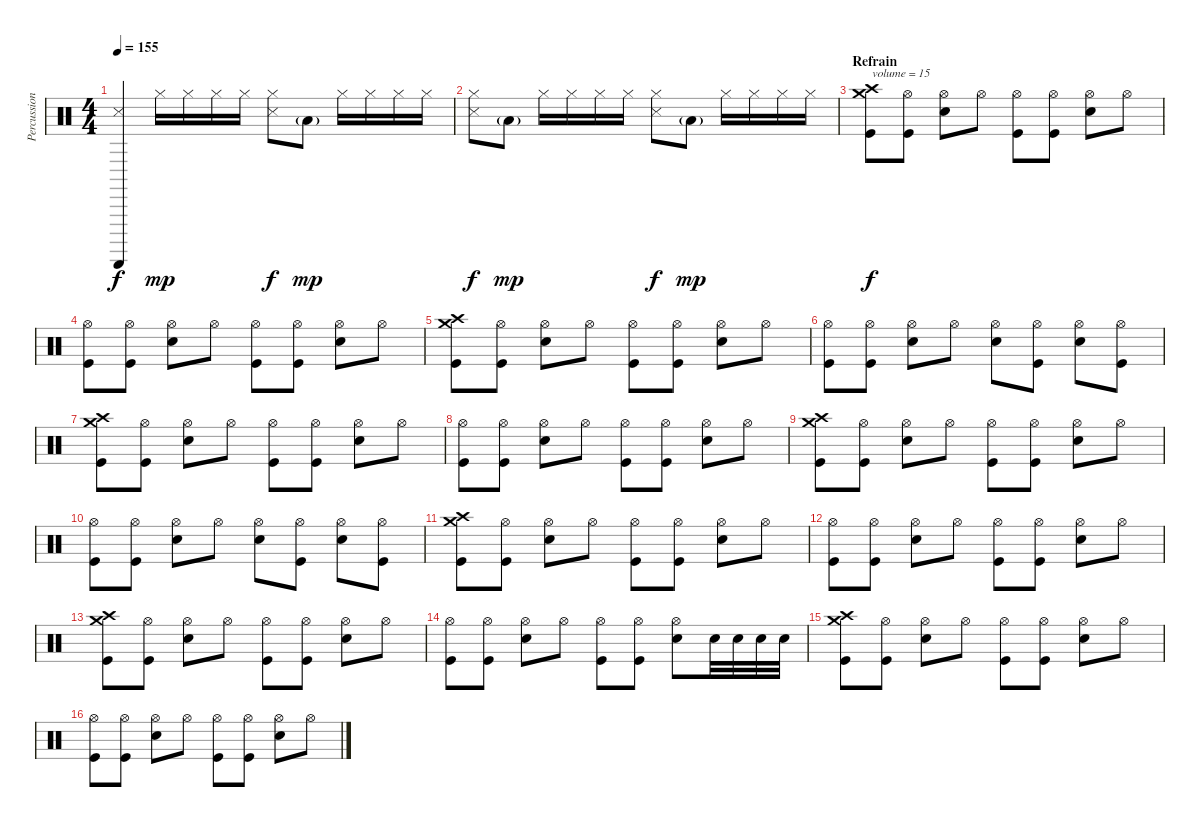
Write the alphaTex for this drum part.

\track ("Percussions" "Percussion") {instrument percussion}
\staff {score}
\articulation defaults
\ts (4 4)
\tempo 155
\clef neutral
\ks c
("Guiro (scrap-return)" "Snare (side stick) 3").4{dy f} "Hi-Hat (closed)".16{dy mp} "Hi-Hat (closed)".16 "Hi-Hat (closed)".16 "Hi-Hat (closed)".16 ("Hi-Hat (closed)" "Snare (side stick) 3").8{dy f} "Low Floor Tom (hit)"{g}.8{dy mp} "Hi-Hat (closed)".16 "Hi-Hat (closed)".16 "Hi-Hat (closed)".16 "Hi-Hat (closed)".16 |
("Hi-Hat (closed)" "Snare (side stick) 3").8{dy f} "Low Floor Tom (hit)"{g}.8{dy mp} "Hi-Hat (closed)".16 "Hi-Hat (closed)".16 "Hi-Hat (closed)".16 "Hi-Hat (closed)".16 ("Hi-Hat (closed)" "Snare (side stick) 3").8{dy f} "Low Floor Tom (hit)"{g}.8{dy mp} "Hi-Hat (closed)".16 "Hi-Hat (closed)".16 "Hi-Hat (closed)".16 "Hi-Hat (closed)".16 |
\section ("" "Refrain")
("Crash high (hit)" "Crash medium (hit)" "Kick (hit)").8{txt "volume = 15" dy f volume 15} ("Hi-Hat (open)" "Kick (hit)").8 ("Hi-Hat (open)" "Snare (hit) 2").8 "Hi-Hat (open)".8 ("Hi-Hat (open)" "Kick (hit)").8 ("Hi-Hat (open)" "Kick (hit)").8 ("Hi-Hat (open)" "Snare (hit) 2").8 "Hi-Hat (open)".8 |
("Hi-Hat (open)" "Kick (hit)").8 ("Hi-Hat (open)" "Kick (hit)").8 ("Hi-Hat (open)" "Snare (hit) 2").8 "Hi-Hat (open)".8 ("Hi-Hat (open)" "Kick (hit)").8 ("Hi-Hat (open)" "Kick (hit)").8 ("Hi-Hat (open)" "Snare (hit) 2").8 "Hi-Hat (open)".8 |
("Crash high (hit)" "Crash medium (hit)" "Kick (hit)").8 ("Hi-Hat (open)" "Kick (hit)").8 ("Hi-Hat (open)" "Snare (hit) 2").8 "Hi-Hat (open)".8 ("Hi-Hat (open)" "Kick (hit)").8 ("Hi-Hat (open)" "Kick (hit)").8 ("Hi-Hat (open)" "Snare (hit) 2").8 "Hi-Hat (open)".8 |
("Hi-Hat (open)" "Kick (hit)").8 ("Hi-Hat (open)" "Kick (hit)").8 ("Hi-Hat (open)" "Snare (hit) 2").8 "Hi-Hat (open)".8 ("Hi-Hat (open)" "Snare (hit) 2").8 ("Hi-Hat (open)" "Kick (hit)").8 ("Hi-Hat (open)" "Snare (hit) 2").8 ("Hi-Hat (open)" "Kick (hit)").8 |
("Crash high (hit)" "Crash medium (hit)" "Kick (hit)").8 ("Hi-Hat (open)" "Kick (hit)").8 ("Hi-Hat (open)" "Snare (hit) 2").8 "Hi-Hat (open)".8 ("Hi-Hat (open)" "Kick (hit)").8 ("Hi-Hat (open)" "Kick (hit)").8 ("Hi-Hat (open)" "Snare (hit) 2").8 "Hi-Hat (open)".8 |
("Hi-Hat (open)" "Kick (hit)").8 ("Hi-Hat (open)" "Kick (hit)").8 ("Hi-Hat (open)" "Snare (hit) 2").8 "Hi-Hat (open)".8 ("Hi-Hat (open)" "Kick (hit)").8 ("Hi-Hat (open)" "Kick (hit)").8 ("Hi-Hat (open)" "Snare (hit) 2").8 "Hi-Hat (open)".8 |
("Crash high (hit)" "Crash medium (hit)" "Kick (hit)").8 ("Hi-Hat (open)" "Kick (hit)").8 ("Hi-Hat (open)" "Snare (hit) 2").8 "Hi-Hat (open)".8 ("Hi-Hat (open)" "Kick (hit)").8 ("Hi-Hat (open)" "Kick (hit)").8 ("Hi-Hat (open)" "Snare (hit) 2").8 "Hi-Hat (open)".8 |
("Hi-Hat (open)" "Kick (hit)").8 ("Hi-Hat (open)" "Kick (hit)").8 ("Hi-Hat (open)" "Snare (hit) 2").8 "Hi-Hat (open)".8 ("Hi-Hat (open)" "Snare (hit) 2").8 ("Hi-Hat (open)" "Kick (hit)").8 ("Hi-Hat (open)" "Snare (hit) 2").8 ("Hi-Hat (open)" "Kick (hit)").8 |
("Crash high (hit)" "Crash medium (hit)" "Kick (hit)").8 ("Hi-Hat (open)" "Kick (hit)").8 ("Hi-Hat (open)" "Snare (hit) 2").8 "Hi-Hat (open)".8 ("Hi-Hat (open)" "Kick (hit)").8 ("Hi-Hat (open)" "Kick (hit)").8 ("Hi-Hat (open)" "Snare (hit) 2").8 "Hi-Hat (open)".8 |
("Hi-Hat (open)" "Kick (hit)").8 ("Hi-Hat (open)" "Kick (hit)").8 ("Hi-Hat (open)" "Snare (hit) 2").8 "Hi-Hat (open)".8 ("Hi-Hat (open)" "Kick (hit)").8 ("Hi-Hat (open)" "Kick (hit)").8 ("Hi-Hat (open)" "Snare (hit) 2").8 "Hi-Hat (open)".8 |
("Crash high (hit)" "Crash medium (hit)" "Kick (hit)").8 ("Hi-Hat (open)" "Kick (hit)").8 ("Hi-Hat (open)" "Snare (hit) 2").8 "Hi-Hat (open)".8 ("Hi-Hat (open)" "Kick (hit)").8 ("Hi-Hat (open)" "Kick (hit)").8 ("Hi-Hat (open)" "Snare (hit) 2").8 "Hi-Hat (open)".8 |
("Hi-Hat (open)" "Kick (hit)").8 ("Hi-Hat (open)" "Kick (hit)").8 ("Hi-Hat (open)" "Snare (hit) 2").8 "Hi-Hat (open)".8 ("Hi-Hat (open)" "Kick (hit)").8 ("Hi-Hat (open)" "Kick (hit)").8 ("Hi-Hat (open)" "Snare (hit) 2").8 "Electric Snare (hit)".32 "Electric Snare (hit)".32 "Electric Snare (hit)".32 "Electric Snare (hit)".32 |
("Crash high (hit)" "Crash medium (hit)" "Kick (hit)").8 ("Hi-Hat (open)" "Kick (hit)").8 ("Hi-Hat (open)" "Snare (hit) 2").8 "Hi-Hat (open)".8 ("Hi-Hat (open)" "Kick (hit)").8 ("Hi-Hat (open)" "Kick (hit)").8 ("Hi-Hat (open)" "Snare (hit) 2").8 "Hi-Hat (open)".8 |
("Hi-Hat (open)" "Kick (hit)").8 ("Hi-Hat (open)" "Kick (hit)").8 ("Hi-Hat (open)" "Snare (hit) 2").8 "Hi-Hat (open)".8 ("Hi-Hat (open)" "Kick (hit)").8 ("Hi-Hat (open)" "Kick (hit)").8 ("Hi-Hat (open)" "Snare (hit) 2").8 "Hi-Hat (open)".8
